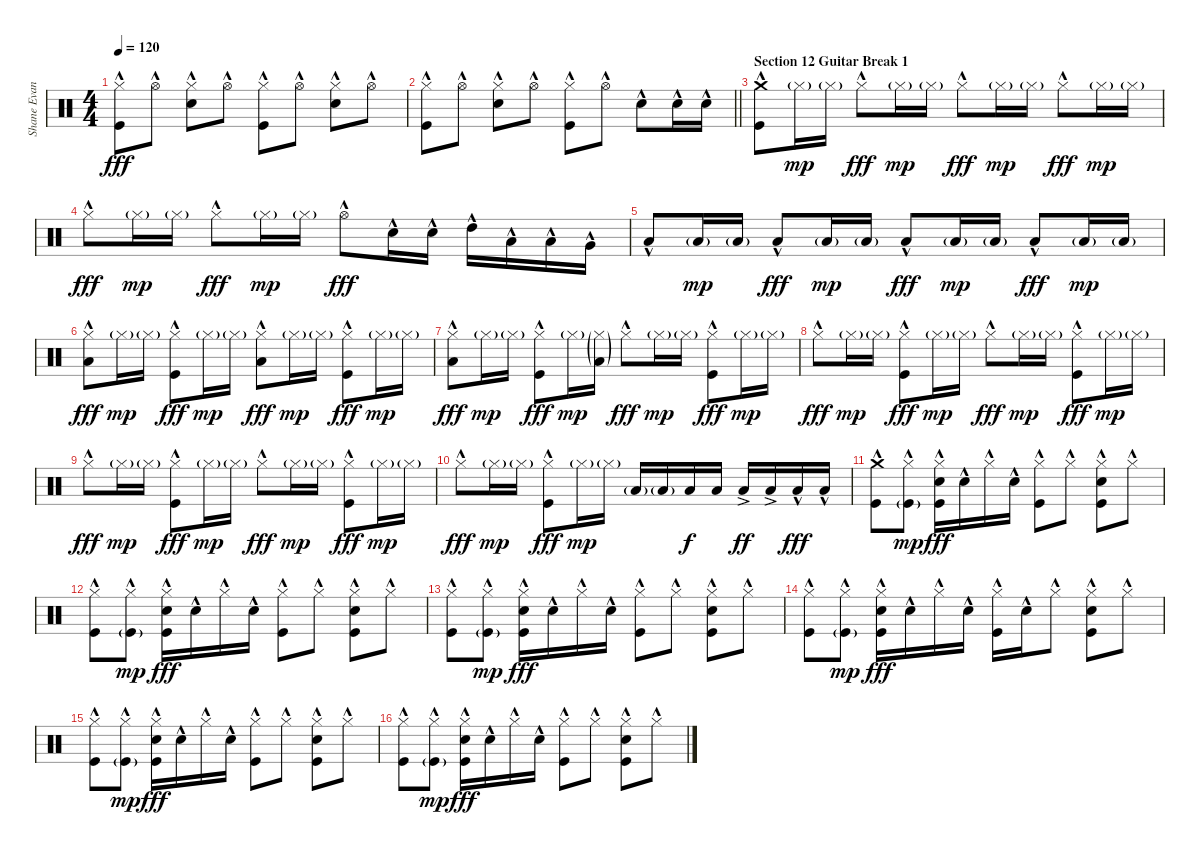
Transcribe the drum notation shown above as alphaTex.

\track ("Shane Evans" "Shane Evan") {instrument percussion}
\staff {score}
\articulation defaults
\ts (4 4)
\tempo 120
\clef neutral
\ks c
("Hi-Hat (closed)"{hac} "Kick (hit)"{hac}).8{dy fff} "Hi-Hat (open)"{hac}.8 ("Hi-Hat (closed)"{hac} "Electric Snare (hit)"{hac}).8 "Hi-Hat (open)"{hac}.8 ("Hi-Hat (closed)"{hac} "Kick (hit)"{hac}).8 "Hi-Hat (open)"{hac}.8 ("Hi-Hat (closed)"{hac} "Electric Snare (hit)"{hac}).8 "Hi-Hat (open)"{hac}.8 |
\barLineRight lightlight
("Hi-Hat (closed)"{hac} "Kick (hit)"{hac}).8 "Hi-Hat (open)"{hac}.8 ("Hi-Hat (closed)"{hac} "Electric Snare (hit)"{hac}).8 "Hi-Hat (open)"{hac}.8 ("Hi-Hat (closed)"{hac} "Kick (hit)"{hac}).8 "Hi-Hat (open)"{hac}.8 "Electric Snare (hit)"{hac}.8 "Electric Snare (hit)"{hac}.16 "Electric Snare (hit)"{hac}.16 |
\section ("" "Section 12 Guitar Break 1")
("Crash medium (hit)"{hac} "Kick (hit)"{hac}).8 "Hi-Hat (closed)"{g}.16{dy mp} "Hi-Hat (closed)"{g}.16 "Hi-Hat (closed)"{hac}.8{dy fff} "Hi-Hat (closed)"{g}.16{dy mp} "Hi-Hat (closed)"{g}.16 "Hi-Hat (closed)"{hac}.8{dy fff} "Hi-Hat (closed)"{g}.16{dy mp} "Hi-Hat (closed)"{g}.16 "Hi-Hat (closed)"{hac}.8{dy fff} "Hi-Hat (closed)"{g}.16{dy mp} "Hi-Hat (closed)"{g}.16 |
"Hi-Hat (closed)"{hac}.8{dy fff} "Hi-Hat (closed)"{g}.16{dy mp} "Hi-Hat (closed)"{g}.16 "Hi-Hat (closed)"{hac}.8{dy fff} "Hi-Hat (closed)"{g}.16{dy mp} "Hi-Hat (closed)"{g}.16 "Hi-Hat (open)"{hac}.8{dy fff} "Electric Snare (hit)"{hac}.16 "Electric Snare (hit)"{hac}.16 "High Tom (hit)"{hac}.16 "Low Tom (hit)"{hac}.16 "Low Tom (hit)"{hac}.16 "Very Low Tom (hit)"{hac}.16 |
"Low Tom (hit)"{hac}.8 "Low Tom (hit)"{g}.16{dy mp} "Low Tom (hit)"{g}.16 "Low Tom (hit)"{hac}.8{dy fff} "Low Tom (hit)"{g}.16{dy mp} "Low Tom (hit)"{g}.16 "Low Tom (hit)"{hac}.8{dy fff} "Low Tom (hit)"{g}.16{dy mp} "Low Tom (hit)"{g}.16 "Low Tom (hit)"{hac}.8{dy fff} "Low Tom (hit)"{g}.16{dy mp} "Low Tom (hit)"{g}.16 |
("Hi-Hat (closed)"{hac} "Low Tom (hit)"{hac}).8{dy fff} "Hi-Hat (closed)"{g}.16{dy mp} "Hi-Hat (closed)"{g}.16 ("Hi-Hat (closed)"{hac} "Kick (hit)"{hac}).8{dy fff} "Hi-Hat (closed)"{g}.16{dy mp} "Hi-Hat (closed)"{g}.16 ("Hi-Hat (closed)"{hac} "Low Tom (hit)").8{dy fff} "Hi-Hat (closed)"{g}.16{dy mp} "Hi-Hat (closed)"{g}.16 ("Hi-Hat (closed)"{hac} "Kick (hit)"{hac}).8{dy fff} "Hi-Hat (closed)"{g}.16{dy mp} "Hi-Hat (closed)"{g}.16 |
("Hi-Hat (closed)"{hac} "Low Tom (hit)").8{dy fff} "Hi-Hat (closed)"{g}.16{dy mp} "Hi-Hat (closed)"{g}.16 ("Hi-Hat (closed)"{hac} "Kick (hit)"{hac}).8{dy fff} "Hi-Hat (closed)"{g}.16{dy mp} ("Hi-Hat (closed)"{g} "Low Tom (hit)"{g}).16 "Hi-Hat (closed)"{hac}.8{dy fff} "Hi-Hat (closed)"{g}.16{dy mp} "Hi-Hat (closed)"{g}.16 ("Hi-Hat (closed)"{hac} "Kick (hit)"{hac}).8{dy fff} "Hi-Hat (closed)"{g}.16{dy mp} "Hi-Hat (closed)"{g}.16 |
"Hi-Hat (closed)"{hac}.8{dy fff} "Hi-Hat (closed)"{g}.16{dy mp} "Hi-Hat (closed)"{g}.16 ("Hi-Hat (closed)"{hac} "Kick (hit)"{hac}).8{dy fff} "Hi-Hat (closed)"{g}.16{dy mp} "Hi-Hat (closed)"{g}.16 "Hi-Hat (closed)"{hac}.8{dy fff} "Hi-Hat (closed)"{g}.16{dy mp} "Hi-Hat (closed)"{g}.16 ("Hi-Hat (closed)"{hac} "Kick (hit)"{hac}).8{dy fff} "Hi-Hat (closed)"{g}.16{dy mp} "Hi-Hat (closed)"{g}.16 |
"Hi-Hat (closed)"{hac}.8{dy fff} "Hi-Hat (closed)"{g}.16{dy mp} "Hi-Hat (closed)"{g}.16 ("Hi-Hat (closed)"{hac} "Kick (hit)"{hac}).8{dy fff} "Hi-Hat (closed)"{g}.16{dy mp} "Hi-Hat (closed)"{g}.16 "Hi-Hat (closed)"{hac}.8{dy fff} "Hi-Hat (closed)"{g}.16{dy mp} "Hi-Hat (closed)"{g}.16 ("Hi-Hat (closed)"{hac} "Kick (hit)"{hac}).8{dy fff} "Hi-Hat (closed)"{g}.16{dy mp} "Hi-Hat (closed)"{g}.16 |
"Hi-Hat (closed)"{hac}.8{dy fff} "Hi-Hat (closed)"{g}.16{dy mp} "Hi-Hat (closed)"{g}.16 ("Hi-Hat (closed)"{hac} "Kick (hit)"{hac}).8{dy fff} "Hi-Hat (closed)"{g}.16{dy mp} "Hi-Hat (closed)"{g}.16 "Low Tom (hit)"{g}.16 "Low Tom (hit)"{g}.16 "Low Tom (hit)".16{dy f} "Low Tom (hit)".16 "Low Tom (hit)"{ac}.16{dy ff} "Low Tom (hit)"{ac}.16 "Low Tom (hit)"{hac}.16{dy fff} "Low Tom (hit)"{hac}.16 |
("Crash medium (hit)"{hac} "Kick (hit)"{hac}).8 ("Hi-Hat (closed)"{hac} "Kick (hit)"{g}).8{dy mp} ("Hi-Hat (closed)"{hac} "Electric Snare (hit)"{hac} "Kick (hit)"{hac}).16{dy fff} "Electric Snare (hit)"{hac}.16 "Hi-Hat (closed)"{hac}.16 "Electric Snare (hit)"{hac}.16 ("Hi-Hat (closed)"{hac} "Kick (hit)"{hac}).8 "Hi-Hat (closed)"{hac}.8 ("Hi-Hat (closed)"{hac} "Electric Snare (hit)"{hac} "Kick (hit)"{hac}).8 "Hi-Hat (closed)"{hac}.8 |
("Hi-Hat (closed)"{hac} "Kick (hit)"{hac}).8 ("Hi-Hat (closed)"{hac} "Kick (hit)"{g}).8{dy mp} ("Hi-Hat (closed)"{hac} "Electric Snare (hit)"{hac} "Kick (hit)"{hac}).16{dy fff} "Electric Snare (hit)"{hac}.16 "Hi-Hat (closed)"{hac}.16 "Electric Snare (hit)"{hac}.16 ("Hi-Hat (closed)"{hac} "Kick (hit)"{hac}).8 "Hi-Hat (closed)"{hac}.8 ("Hi-Hat (closed)"{hac} "Electric Snare (hit)"{hac} "Kick (hit)"{hac}).8 "Hi-Hat (closed)"{hac}.8 |
("Hi-Hat (closed)"{hac} "Kick (hit)"{hac}).8 ("Hi-Hat (closed)"{hac} "Kick (hit)"{g}).8{dy mp} ("Hi-Hat (closed)"{hac} "Electric Snare (hit)"{hac} "Kick (hit)"{hac}).16{dy fff} "Electric Snare (hit)"{hac}.16 "Hi-Hat (closed)"{hac}.16 "Electric Snare (hit)"{hac}.16 ("Hi-Hat (closed)"{hac} "Kick (hit)"{hac}).8 "Hi-Hat (closed)"{hac}.8 ("Hi-Hat (closed)"{hac} "Electric Snare (hit)"{hac} "Kick (hit)"{hac}).8 "Hi-Hat (closed)"{hac}.8 |
("Hi-Hat (closed)"{hac} "Kick (hit)"{hac}).8 ("Hi-Hat (closed)"{hac} "Kick (hit)"{g}).8{dy mp} ("Hi-Hat (closed)"{hac} "Electric Snare (hit)"{hac} "Kick (hit)"{hac}).16{dy fff} "Electric Snare (hit)"{hac}.16 "Hi-Hat (closed)"{hac}.16 "Electric Snare (hit)"{hac}.16 ("Hi-Hat (closed)"{hac} "Kick (hit)"{hac}).16 "Electric Snare (hit)"{hac}.16 "Hi-Hat (closed)"{hac}.8 ("Hi-Hat (closed)"{hac} "Electric Snare (hit)"{hac} "Kick (hit)"{hac}).8 "Hi-Hat (closed)"{hac}.8 |
("Hi-Hat (closed)"{hac} "Kick (hit)"{hac}).8 ("Hi-Hat (closed)"{hac} "Kick (hit)"{g}).8{dy mp} ("Hi-Hat (closed)"{hac} "Electric Snare (hit)"{hac} "Kick (hit)"{hac}).16{dy fff} "Electric Snare (hit)"{hac}.16 "Hi-Hat (closed)"{hac}.16 "Electric Snare (hit)"{hac}.16 ("Hi-Hat (closed)"{hac} "Kick (hit)"{hac}).8 "Hi-Hat (closed)"{hac}.8 ("Hi-Hat (closed)"{hac} "Electric Snare (hit)"{hac} "Kick (hit)"{hac}).8 "Hi-Hat (closed)"{hac}.8 |
("Hi-Hat (closed)"{hac} "Kick (hit)"{hac}).8 ("Hi-Hat (closed)"{hac} "Kick (hit)"{g}).8{dy mp} ("Hi-Hat (closed)"{hac} "Electric Snare (hit)"{hac} "Kick (hit)"{hac}).16{dy fff} "Electric Snare (hit)"{hac}.16 "Hi-Hat (closed)"{hac}.16 "Electric Snare (hit)"{hac}.16 ("Hi-Hat (closed)"{hac} "Kick (hit)"{hac}).8 "Hi-Hat (closed)"{hac}.8 ("Hi-Hat (closed)"{hac} "Electric Snare (hit)"{hac} "Kick (hit)"{hac}).8 "Hi-Hat (closed)"{hac}.8
